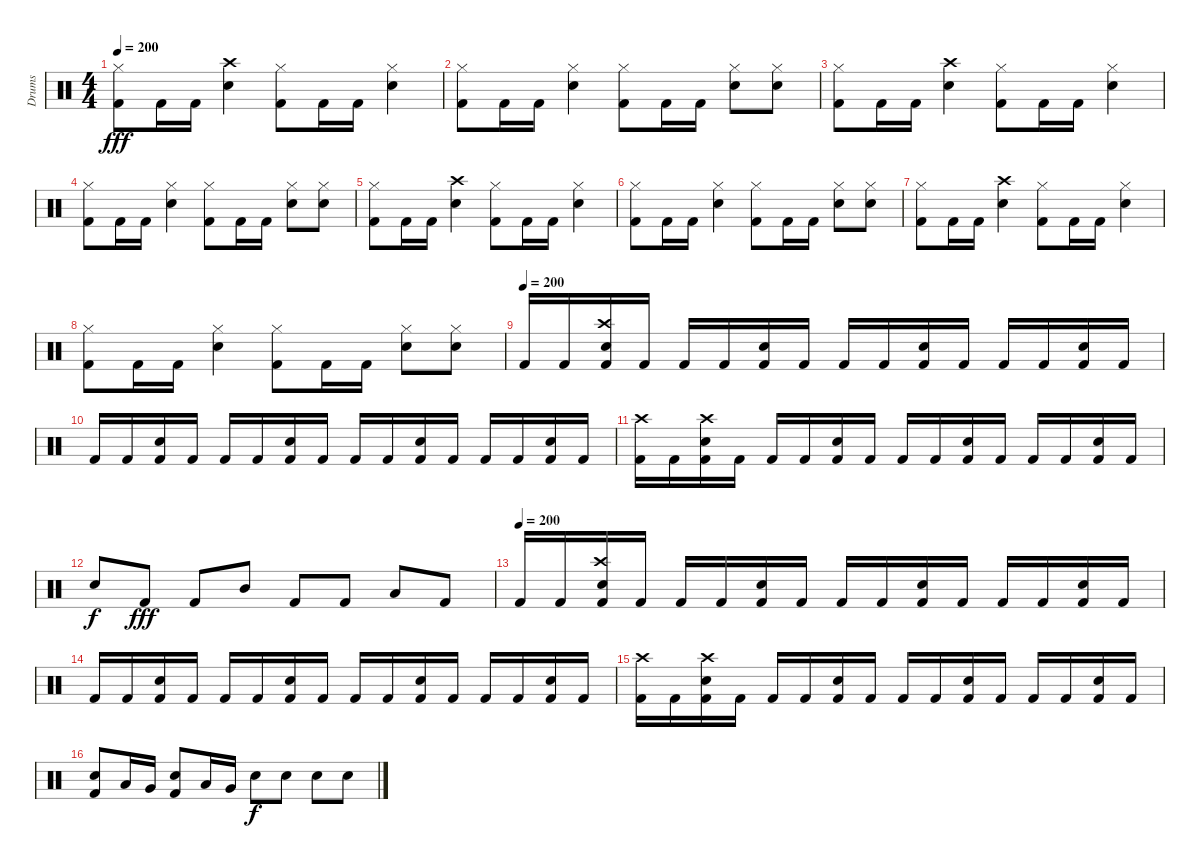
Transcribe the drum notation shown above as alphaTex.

\track ("Drums" "Drums") {instrument percussion}
\staff {score}
\articulation defaults
\ts (4 4)
\tempo 200
\clef neutral
\ks c
("Hi-Hat (closed)" "Kick (hit) 2").8{dy fff} "Kick (hit) 2".16 "Kick (hit) 2".16 ("Crash high (hit)" "Snare (hit) 2").4 ("Hi-Hat (closed)" "Kick (hit) 2").8 "Kick (hit) 2".16 "Kick (hit) 2".16 ("Hi-Hat (closed)" "Snare (hit) 2").4 |
("Hi-Hat (closed)" "Kick (hit) 2").8 "Kick (hit) 2".16 "Kick (hit) 2".16 ("Hi-Hat (closed)" "Snare (hit) 2").4 ("Hi-Hat (closed)" "Kick (hit) 2").8 "Kick (hit) 2".16 "Kick (hit) 2".16 ("Hi-Hat (closed)" "Snare (hit) 2").8 ("Hi-Hat (closed)" "Snare (hit) 2").8 |
("Hi-Hat (closed)" "Kick (hit) 2").8 "Kick (hit) 2".16 "Kick (hit) 2".16 ("Crash high (hit)" "Snare (hit) 2").4 ("Hi-Hat (closed)" "Kick (hit) 2").8 "Kick (hit) 2".16 "Kick (hit) 2".16 ("Hi-Hat (closed)" "Snare (hit) 2").4 |
("Hi-Hat (closed)" "Kick (hit) 2").8 "Kick (hit) 2".16 "Kick (hit) 2".16 ("Hi-Hat (closed)" "Snare (hit) 2").4 ("Hi-Hat (closed)" "Kick (hit) 2").8 "Kick (hit) 2".16 "Kick (hit) 2".16 ("Hi-Hat (closed)" "Snare (hit) 2").8 ("Hi-Hat (closed)" "Snare (hit) 2").8 |
("Hi-Hat (closed)" "Kick (hit) 2").8 "Kick (hit) 2".16 "Kick (hit) 2".16 ("Crash high (hit)" "Snare (hit) 2").4 ("Hi-Hat (closed)" "Kick (hit) 2").8 "Kick (hit) 2".16 "Kick (hit) 2".16 ("Hi-Hat (closed)" "Snare (hit) 2").4 |
("Hi-Hat (closed)" "Kick (hit) 2").8 "Kick (hit) 2".16 "Kick (hit) 2".16 ("Hi-Hat (closed)" "Snare (hit) 2").4 ("Hi-Hat (closed)" "Kick (hit) 2").8 "Kick (hit) 2".16 "Kick (hit) 2".16 ("Hi-Hat (closed)" "Snare (hit) 2").8 ("Hi-Hat (closed)" "Snare (hit) 2").8 |
("Hi-Hat (closed)" "Kick (hit) 2").8 "Kick (hit) 2".16 "Kick (hit) 2".16 ("Crash high (hit)" "Snare (hit) 2").4 ("Hi-Hat (closed)" "Kick (hit) 2").8 "Kick (hit) 2".16 "Kick (hit) 2".16 ("Hi-Hat (closed)" "Snare (hit) 2").4 |
("Hi-Hat (closed)" "Kick (hit) 2").8 "Kick (hit) 2".16 "Kick (hit) 2".16 ("Hi-Hat (closed)" "Snare (hit) 2").4 ("Hi-Hat (closed)" "Kick (hit) 2").8 "Kick (hit) 2".16 "Kick (hit) 2".16 ("Hi-Hat (closed)" "Snare (hit) 2").8 ("Hi-Hat (closed)" "Snare (hit) 2").8 |
\tempo (200)
"Kick (hit) 2".16 "Kick (hit) 2".16 ("Crash high (hit)" "Snare (hit) 2" "Kick (hit) 2").16 "Kick (hit) 2".16 "Kick (hit) 2".16 "Kick (hit) 2".16 ("Snare (hit) 2" "Kick (hit) 2").16 "Kick (hit) 2".16 "Kick (hit) 2".16 "Kick (hit) 2".16 ("Snare (hit) 2" "Kick (hit) 2").16 "Kick (hit) 2".16 "Kick (hit) 2".16 "Kick (hit) 2".16 ("Snare (hit) 2" "Kick (hit) 2").16 "Kick (hit) 2".16 |
"Kick (hit) 2".16 "Kick (hit) 2".16 ("Snare (hit) 2" "Kick (hit) 2").16 "Kick (hit) 2".16 "Kick (hit) 2".16 "Kick (hit) 2".16 ("Snare (hit) 2" "Kick (hit) 2").16 "Kick (hit) 2".16 "Kick (hit) 2".16 "Kick (hit) 2".16 ("Snare (hit) 2" "Kick (hit) 2").16 "Kick (hit) 2".16 "Kick (hit) 2".16 "Kick (hit) 2".16 ("Snare (hit) 2" "Kick (hit) 2").16 "Kick (hit) 2".16 |
("Crash high (hit)" "Kick (hit) 2").16 "Kick (hit) 2".16 ("Crash high (hit)" "Snare (hit) 2" "Kick (hit) 2").16 "Kick (hit) 2".16 "Kick (hit) 2".16 "Kick (hit) 2".16 ("Snare (hit) 2" "Kick (hit) 2").16 "Kick (hit) 2".16 "Kick (hit) 2".16 "Kick (hit) 2".16 ("Snare (hit) 2" "Kick (hit) 2").16 "Kick (hit) 2".16 "Kick (hit) 2".16 "Kick (hit) 2".16 ("Snare (hit) 2" "Kick (hit) 2").16 "Kick (hit) 2".16 |
"Snare (hit) 2".8{dy f} "Kick (hit) 2".8{dy fff} "Kick (hit) 2".8 "Mid Tom (hit)".8 "Kick (hit) 2".8 "Kick (hit) 2".8 "Low Tom (hit)".8 "Kick (hit) 2".8 |
\tempo (200)
"Kick (hit) 2".16 "Kick (hit) 2".16 ("Crash high (hit)" "Snare (hit) 2" "Kick (hit) 2").16 "Kick (hit) 2".16 "Kick (hit) 2".16 "Kick (hit) 2".16 ("Snare (hit) 2" "Kick (hit) 2").16 "Kick (hit) 2".16 "Kick (hit) 2".16 "Kick (hit) 2".16 ("Snare (hit) 2" "Kick (hit) 2").16 "Kick (hit) 2".16 "Kick (hit) 2".16 "Kick (hit) 2".16 ("Snare (hit) 2" "Kick (hit) 2").16 "Kick (hit) 2".16 |
"Kick (hit) 2".16 "Kick (hit) 2".16 ("Snare (hit) 2" "Kick (hit) 2").16 "Kick (hit) 2".16 "Kick (hit) 2".16 "Kick (hit) 2".16 ("Snare (hit) 2" "Kick (hit) 2").16 "Kick (hit) 2".16 "Kick (hit) 2".16 "Kick (hit) 2".16 ("Snare (hit) 2" "Kick (hit) 2").16 "Kick (hit) 2".16 "Kick (hit) 2".16 "Kick (hit) 2".16 ("Snare (hit) 2" "Kick (hit) 2").16 "Kick (hit) 2".16 |
("Crash high (hit)" "Kick (hit) 2").16 "Kick (hit) 2".16 ("Crash high (hit)" "Snare (hit) 2" "Kick (hit) 2").16 "Kick (hit) 2".16 "Kick (hit) 2".16 "Kick (hit) 2".16 ("Snare (hit) 2" "Kick (hit) 2").16 "Kick (hit) 2".16 "Kick (hit) 2".16 "Kick (hit) 2".16 ("Snare (hit) 2" "Kick (hit) 2").16 "Kick (hit) 2".16 "Kick (hit) 2".16 "Kick (hit) 2".16 ("Snare (hit) 2" "Kick (hit) 2").16 "Kick (hit) 2".16 |
("Snare (hit) 2" "Kick (hit) 2").8 "Low Tom (hit)".16 "Very Low Tom (hit)".16 ("Snare (hit) 2" "Kick (hit) 2").8 "Low Tom (hit)".16 "Very Low Tom (hit)".16 "Snare (hit) 2".8{dy f} "Snare (hit) 2".8 "Snare (hit) 2".8 "Snare (hit) 2".8
